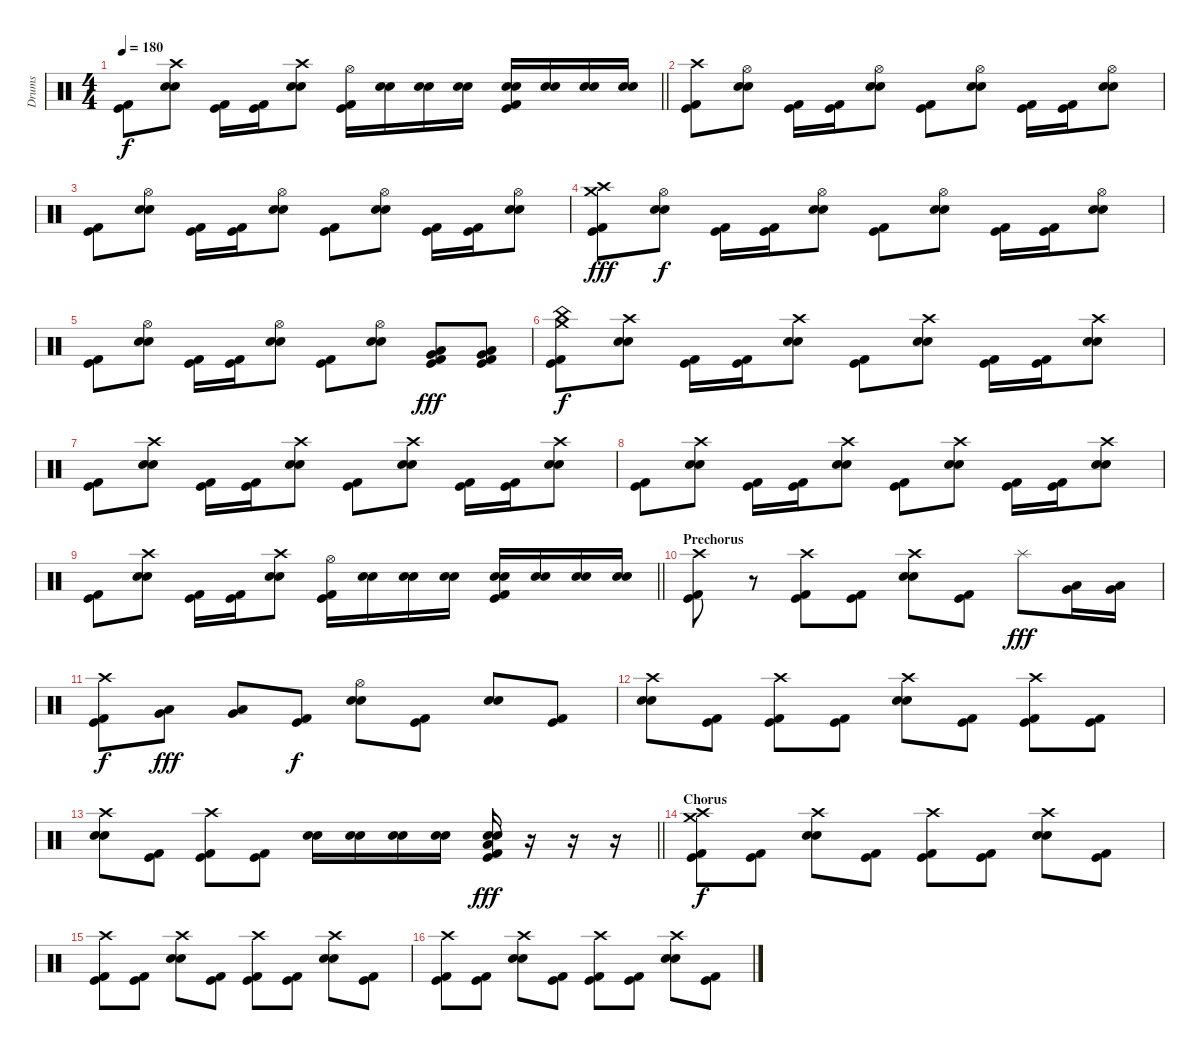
\track ("Drums" "Drums") {instrument percussion}
\staff {score}
\articulation defaults
\ts (4 4)
\tempo 180
\clef neutral
\barLineRight lightlight
\ks c
("Kick (hit)" "Kick (hit) 2").8{dy f} ("Electric Snare (hit)" "Snare (hit) 2" "Crash high (hit)").8 ("Kick (hit)" "Kick (hit) 2").16 ("Kick (hit)" "Kick (hit) 2").16 ("Electric Snare (hit)" "Snare (hit) 2" "Crash high (hit)").8 ("Kick (hit)" "Hi-Hat (open)" "Kick (hit) 2").16 ("Electric Snare (hit)" "Snare (hit) 2").16 ("Electric Snare (hit)" "Snare (hit) 2").16 ("Electric Snare (hit)" "Snare (hit) 2").16 ("Electric Snare (hit)" "Kick (hit)" "Snare (hit) 2" "Kick (hit) 2").16 ("Electric Snare (hit)" "Snare (hit) 2").16 ("Electric Snare (hit)" "Snare (hit) 2").16 ("Electric Snare (hit)" "Snare (hit) 2").16 |
("Kick (hit)" "Crash high (hit)" "Kick (hit) 2").8 ("Electric Snare (hit)" "Snare (hit) 2" "Hi-Hat (open)").8 ("Kick (hit)" "Kick (hit) 2").16 ("Kick (hit)" "Kick (hit) 2").16 ("Electric Snare (hit)" "Snare (hit) 2" "Hi-Hat (open)").8 ("Kick (hit)" "Kick (hit) 2").8 ("Electric Snare (hit)" "Snare (hit) 2" "Hi-Hat (open)").8 ("Kick (hit)" "Kick (hit) 2").16 ("Kick (hit)" "Kick (hit) 2").16 ("Electric Snare (hit)" "Snare (hit) 2" "Hi-Hat (open)").8 |
("Kick (hit)" "Kick (hit) 2").8 ("Electric Snare (hit)" "Snare (hit) 2" "Hi-Hat (open)").8 ("Kick (hit)" "Kick (hit) 2").16 ("Kick (hit)" "Kick (hit) 2").16 ("Electric Snare (hit)" "Snare (hit) 2" "Hi-Hat (open)").8 ("Kick (hit)" "Kick (hit) 2").8 ("Electric Snare (hit)" "Snare (hit) 2" "Hi-Hat (open)").8 ("Kick (hit)" "Kick (hit) 2").16 ("Kick (hit)" "Kick (hit) 2").16 ("Electric Snare (hit)" "Snare (hit) 2" "Hi-Hat (open)").8 |
("Crash medium (hit)" "Kick (hit)" "Crash high (hit)" "Kick (hit) 2").8{dy fff} ("Electric Snare (hit)" "Snare (hit) 2" "Hi-Hat (open)").8{dy f} ("Kick (hit)" "Kick (hit) 2").16 ("Kick (hit)" "Kick (hit) 2").16 ("Electric Snare (hit)" "Snare (hit) 2" "Hi-Hat (open)").8 ("Kick (hit)" "Kick (hit) 2").8 ("Electric Snare (hit)" "Snare (hit) 2" "Hi-Hat (open)").8 ("Kick (hit)" "Kick (hit) 2").16 ("Kick (hit)" "Kick (hit) 2").16 ("Electric Snare (hit)" "Snare (hit) 2" "Hi-Hat (open)").8 |
("Kick (hit)" "Kick (hit) 2").8 ("Electric Snare (hit)" "Snare (hit) 2" "Hi-Hat (open)").8 ("Kick (hit)" "Kick (hit) 2").16 ("Kick (hit)" "Kick (hit) 2").16 ("Electric Snare (hit)" "Snare (hit) 2" "Hi-Hat (open)").8 ("Kick (hit)" "Kick (hit) 2").8 ("Electric Snare (hit)" "Snare (hit) 2" "Hi-Hat (open)").8 ("Low Floor Tom (hit)" "Very Low Tom (hit)" "Kick (hit)" "Kick (hit) 2").8{dy fff} ("Low Floor Tom (hit)" "Very Low Tom (hit)" "Kick (hit)" "Kick (hit) 2").8 |
("Crash medium (hit)" "Kick (hit)" "China (hit)" "Kick (hit) 2").8{dy f} ("Electric Snare (hit)" "Snare (hit) 2" "Crash high (hit)").8 ("Kick (hit)" "Kick (hit) 2").16 ("Kick (hit)" "Kick (hit) 2").16 ("Electric Snare (hit)" "Snare (hit) 2" "Crash high (hit)").8 ("Kick (hit)" "Kick (hit) 2").8 ("Electric Snare (hit)" "Snare (hit) 2" "Crash high (hit)").8 ("Kick (hit)" "Kick (hit) 2").16 ("Kick (hit)" "Kick (hit) 2").16 ("Electric Snare (hit)" "Snare (hit) 2" "Crash high (hit)").8 |
("Kick (hit)" "Kick (hit) 2").8 ("Electric Snare (hit)" "Snare (hit) 2" "Crash high (hit)").8 ("Kick (hit)" "Kick (hit) 2").16 ("Kick (hit)" "Kick (hit) 2").16 ("Electric Snare (hit)" "Snare (hit) 2" "Crash high (hit)").8 ("Kick (hit)" "Kick (hit) 2").8 ("Electric Snare (hit)" "Snare (hit) 2" "Crash high (hit)").8 ("Kick (hit)" "Kick (hit) 2").16 ("Kick (hit)" "Kick (hit) 2").16 ("Electric Snare (hit)" "Snare (hit) 2" "Crash high (hit)").8 |
("Kick (hit)" "Kick (hit) 2").8 ("Electric Snare (hit)" "Snare (hit) 2" "Crash high (hit)").8 ("Kick (hit)" "Kick (hit) 2").16 ("Kick (hit)" "Kick (hit) 2").16 ("Electric Snare (hit)" "Snare (hit) 2" "Crash high (hit)").8 ("Kick (hit)" "Kick (hit) 2").8 ("Electric Snare (hit)" "Snare (hit) 2" "Crash high (hit)").8 ("Kick (hit)" "Kick (hit) 2").16 ("Kick (hit)" "Kick (hit) 2").16 ("Electric Snare (hit)" "Snare (hit) 2" "Crash high (hit)").8 |
\barLineRight lightlight
("Kick (hit)" "Kick (hit) 2").8 ("Electric Snare (hit)" "Snare (hit) 2" "Crash high (hit)").8 ("Kick (hit)" "Kick (hit) 2").16 ("Kick (hit)" "Kick (hit) 2").16 ("Electric Snare (hit)" "Snare (hit) 2" "Crash high (hit)").8 ("Kick (hit)" "Hi-Hat (open)" "Kick (hit) 2").16 ("Electric Snare (hit)" "Snare (hit) 2").16 ("Electric Snare (hit)" "Snare (hit) 2").16 ("Electric Snare (hit)" "Snare (hit) 2").16 ("Electric Snare (hit)" "Kick (hit)" "Snare (hit) 2" "Kick (hit) 2").16 ("Electric Snare (hit)" "Snare (hit) 2").16 ("Electric Snare (hit)" "Snare (hit) 2").16 ("Electric Snare (hit)" "Snare (hit) 2").16 |
\section ("" "Prechorus")
("Kick (hit)" "Crash high (hit)" "Kick (hit) 2").8 r.8 ("Crash high (hit)" "Kick (hit)" "Kick (hit) 2").8 ("Kick (hit)" "Kick (hit) 2").8 ("Electric Snare (hit)" "Crash high (hit)" "Snare (hit) 2").8 ("Kick (hit)" "Kick (hit) 2").8 "Splash (hit)".8{dy fff} ("Very Low Tom (hit)" "Low Tom (hit)").16 ("Very Low Tom (hit)" "Low Tom (hit)").16 |
("Kick (hit)" "Crash high (hit)" "Kick (hit) 2").8{dy f} ("Very Low Tom (hit)" "Low Tom (hit)").8{dy fff} ("Low Floor Tom (hit)" "Very Low Tom (hit)").8 ("Kick (hit)" "Kick (hit) 2").8{dy f} ("Electric Snare (hit)" "Snare (hit) 2" "Hi-Hat (open)").8 ("Kick (hit)" "Kick (hit) 2").8 ("Electric Snare (hit)" "Snare (hit) 2").8 ("Kick (hit)" "Kick (hit) 2").8 |
("Electric Snare (hit)" "Snare (hit) 2" "Crash high (hit)").8 ("Kick (hit)" "Kick (hit) 2").8 ("Kick (hit)" "Crash high (hit)" "Kick (hit) 2").8 ("Kick (hit)" "Kick (hit) 2").8 ("Electric Snare (hit)" "Snare (hit) 2" "Crash high (hit)").8 ("Kick (hit)" "Kick (hit) 2").8 ("Kick (hit)" "Crash high (hit)" "Kick (hit) 2").8 ("Kick (hit)" "Kick (hit) 2").8 |
\barLineRight lightlight
("Electric Snare (hit)" "Snare (hit) 2" "Crash high (hit)").8 ("Kick (hit)" "Kick (hit) 2").8 ("Kick (hit)" "Crash high (hit)" "Kick (hit) 2").8 ("Kick (hit)" "Kick (hit) 2").8 ("Electric Snare (hit)" "Snare (hit) 2").16 ("Electric Snare (hit)" "Snare (hit) 2").16 ("Electric Snare (hit)" "Snare (hit) 2").16 ("Electric Snare (hit)" "Snare (hit) 2").16 ("Low Floor Tom (hit)" "Electric Snare (hit)" "Snare (hit) 2" "Kick (hit) 2" "Kick (hit)").16{dy fff} r.16 r.16 r.16 |
\section ("" "Chorus")
("Crash medium (hit)" "Kick (hit)" "Crash high (hit)" "Kick (hit) 2").8{dy f} ("Kick (hit)" "Kick (hit) 2").8 ("Electric Snare (hit)" "Crash high (hit)" "Snare (hit) 2").8 ("Kick (hit)" "Kick (hit) 2").8 ("Kick (hit)" "Crash high (hit)" "Kick (hit) 2").8 ("Kick (hit)" "Kick (hit) 2").8 ("Electric Snare (hit)" "Snare (hit) 2" "Crash high (hit)").8 ("Kick (hit)" "Kick (hit) 2").8 |
("Kick (hit)" "Crash high (hit)" "Kick (hit) 2").8 ("Kick (hit)" "Kick (hit) 2").8 ("Electric Snare (hit)" "Snare (hit) 2" "Crash high (hit)").8 ("Kick (hit)" "Kick (hit) 2").8 ("Kick (hit)" "Crash high (hit)" "Kick (hit) 2").8 ("Kick (hit)" "Kick (hit) 2").8 ("Electric Snare (hit)" "Snare (hit) 2" "Crash high (hit)").8 ("Kick (hit)" "Kick (hit) 2").8 |
("Kick (hit)" "Crash high (hit)" "Kick (hit) 2").8 ("Kick (hit)" "Kick (hit) 2").8 ("Electric Snare (hit)" "Snare (hit) 2" "Crash high (hit)").8 ("Kick (hit)" "Kick (hit) 2").8 ("Kick (hit)" "Crash high (hit)" "Kick (hit) 2").8 ("Kick (hit)" "Kick (hit) 2").8 ("Electric Snare (hit)" "Snare (hit) 2" "Crash high (hit)").8 ("Kick (hit)" "Kick (hit) 2").8
